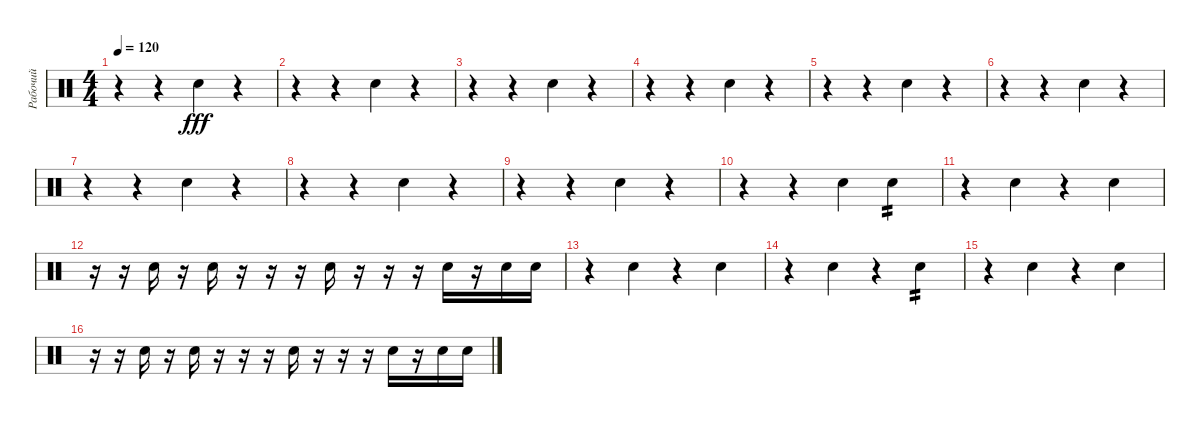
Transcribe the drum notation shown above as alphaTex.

\track ("Рабочий" "Рабочий") {instrument percussion}
\staff {score}
\articulation defaults
\ts (4 4)
\tempo 120
\clef neutral
\ks c
r.4{dy fff} r.4 "Snare (hit) 2".4 r.4 |
r.4 r.4 "Snare (hit) 2".4 r.4 |
r.4 r.4 "Snare (hit) 2".4 r.4 |
r.4 r.4 "Snare (hit) 2".4 r.4 |
r.4 r.4 "Snare (hit) 2".4 r.4 |
r.4 r.4 "Snare (hit) 2".4 r.4 |
r.4 r.4 "Snare (hit) 2".4 r.4 |
r.4 r.4 "Snare (hit) 2".4 r.4 |
r.4 r.4 "Snare (hit) 2".4 r.4 |
r.4 r.4 "Snare (hit) 2".4 "Snare (hit) 2".4{tp 2} |
r.4 "Snare (hit) 2".4 r.4 "Snare (hit) 2".4 |
r.16 r.16 "Snare (hit) 2".16 r.16 "Snare (hit) 2".16 r.16 r.16 r.16 "Snare (hit) 2".16 r.16 r.16 r.16 "Snare (hit) 2".16 r.16 "Snare (hit) 2".16 "Snare (hit) 2".16 |
r.4 "Snare (hit) 2".4 r.4 "Snare (hit) 2".4 |
r.4 "Snare (hit) 2".4 r.4 "Snare (hit) 2".4{tp 2} |
r.4 "Snare (hit) 2".4 r.4 "Snare (hit) 2".4 |
r.16 r.16 "Snare (hit) 2".16 r.16 "Snare (hit) 2".16 r.16 r.16 r.16 "Snare (hit) 2".16 r.16 r.16 r.16 "Snare (hit) 2".16 r.16 "Snare (hit) 2".16 "Snare (hit) 2".16
